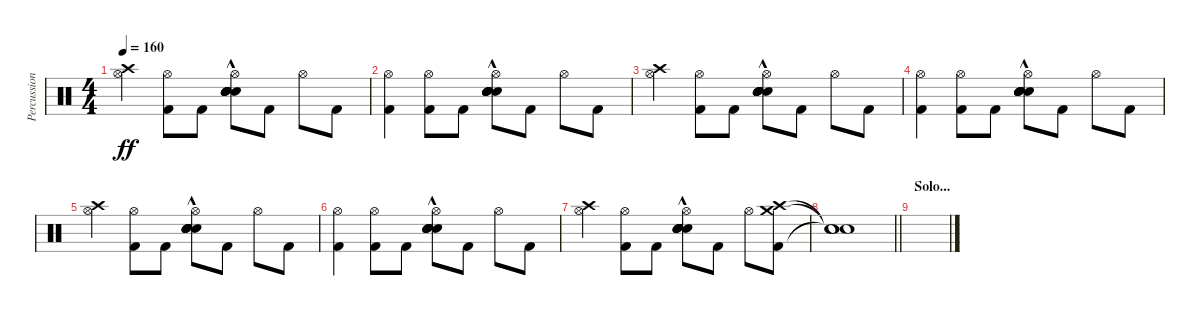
\track ("Percussion" "Percussion") {instrument percussion}
\staff {score}
\articulation defaults
\ts (4 4)
\tempo 160
\clef neutral
\ks c
("Hi-Hat (open)" "Crash high (hit)").4{dy ff} ("Hi-Hat (open)" "Kick (hit) 2").8 "Kick (hit) 2".8 ("Hi-Hat (open)" "Electric Snare (hit)"{hac} "Electric Snare (hit)"{hac} "Electric Snare (hit)"{hac} "Electric Snare (hit)"{hac} "Electric Snare (hit)"{hac}).8 "Kick (hit) 2".8 "Hi-Hat (open)".8 "Kick (hit) 2".8 |
("Hi-Hat (open)" "Kick (hit) 2").4 ("Hi-Hat (open)" "Kick (hit) 2").8 "Kick (hit) 2".8 ("Hi-Hat (open)" "Electric Snare (hit)"{hac} "Electric Snare (hit)"{hac} "Electric Snare (hit)"{hac} "Electric Snare (hit)"{hac} "Electric Snare (hit)"{hac}).8 "Kick (hit) 2".8 "Hi-Hat (open)".8 "Kick (hit) 2".8 |
("Hi-Hat (open)" "Crash high (hit)").4 ("Hi-Hat (open)" "Kick (hit) 2").8 "Kick (hit) 2".8 ("Hi-Hat (open)" "Electric Snare (hit)"{hac} "Electric Snare (hit)"{hac} "Electric Snare (hit)"{hac} "Electric Snare (hit)"{hac} "Electric Snare (hit)"{hac}).8 "Kick (hit) 2".8 "Hi-Hat (open)".8 "Kick (hit) 2".8 |
("Hi-Hat (open)" "Kick (hit) 2").4 ("Hi-Hat (open)" "Kick (hit) 2").8 "Kick (hit) 2".8 ("Hi-Hat (open)" "Electric Snare (hit)"{hac} "Electric Snare (hit)"{hac} "Electric Snare (hit)"{hac} "Electric Snare (hit)"{hac} "Electric Snare (hit)"{hac}).8 "Kick (hit) 2".8 "Hi-Hat (open)".8 "Kick (hit) 2".8 |
("Hi-Hat (open)" "Crash high (hit)").4 ("Hi-Hat (open)" "Kick (hit) 2").8 "Kick (hit) 2".8 ("Hi-Hat (open)" "Electric Snare (hit)"{hac} "Electric Snare (hit)"{hac} "Electric Snare (hit)"{hac} "Electric Snare (hit)"{hac} "Electric Snare (hit)"{hac}).8 "Kick (hit) 2".8 "Hi-Hat (open)".8 "Kick (hit) 2".8 |
("Hi-Hat (open)" "Kick (hit) 2").4 ("Hi-Hat (open)" "Kick (hit) 2").8 "Kick (hit) 2".8 ("Hi-Hat (open)" "Electric Snare (hit)"{hac} "Electric Snare (hit)"{hac} "Electric Snare (hit)"{hac} "Electric Snare (hit)"{hac} "Electric Snare (hit)"{hac}).8 "Kick (hit) 2".8 "Hi-Hat (open)".8 "Kick (hit) 2".8 |
("Hi-Hat (open)" "Crash high (hit)").4 ("Hi-Hat (open)" "Kick (hit) 2").8 "Kick (hit) 2".8 ("Hi-Hat (open)" "Electric Snare (hit)"{hac} "Electric Snare (hit)"{hac} "Electric Snare (hit)"{hac} "Electric Snare (hit)"{hac} "Electric Snare (hit)"{hac}).8 "Kick (hit) 2".8 "Hi-Hat (open)".8 ("Kick (hit) 2" "Crash high (hit)" "Crash medium (hit)").8 |
\barLineRight lightlight
("Snare (hit)"{t} "Snare (hit)"{t} "Snare (hit)"{t}).1 |
\section ("" "Solo...")
